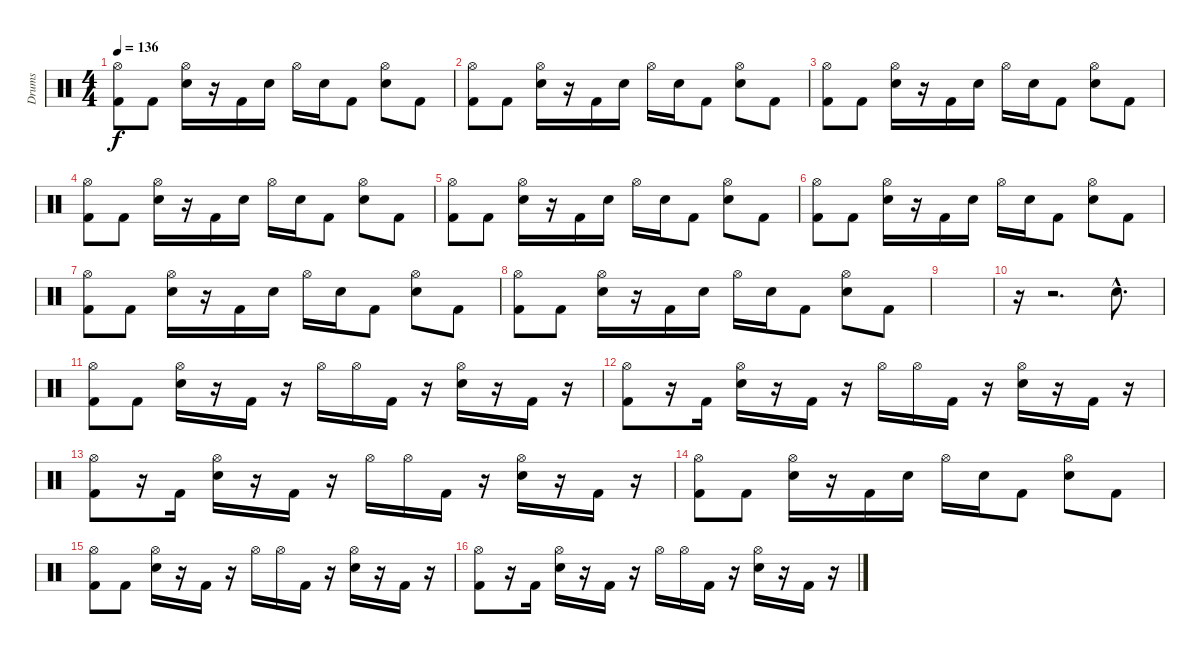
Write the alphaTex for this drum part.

\track ("Drums" "Drums") {instrument percussion}
\staff {score}
\articulation defaults
\ts (4 4)
\tempo 136
\clef neutral
\ks c
("Hi-Hat (open)" "Kick (hit) 2").8{dy f} "Kick (hit) 2".8 ("Hi-Hat (open)" "Electric Snare (hit)").16 r.16 "Kick (hit) 2".16 "Electric Snare (hit)".16 "Hi-Hat (open)".16 "Electric Snare (hit)".16 "Kick (hit) 2".8 ("Hi-Hat (open)" "Electric Snare (hit)").8 "Kick (hit) 2".8 |
("Hi-Hat (open)" "Kick (hit) 2").8 "Kick (hit) 2".8 ("Hi-Hat (open)" "Electric Snare (hit)").16 r.16 "Kick (hit) 2".16 "Electric Snare (hit)".16 "Hi-Hat (open)".16 "Electric Snare (hit)".16 "Kick (hit) 2".8 ("Hi-Hat (open)" "Electric Snare (hit)").8 "Kick (hit) 2".8 |
("Hi-Hat (open)" "Kick (hit) 2").8 "Kick (hit) 2".8 ("Hi-Hat (open)" "Electric Snare (hit)").16 r.16 "Kick (hit) 2".16 "Electric Snare (hit)".16 "Hi-Hat (open)".16 "Electric Snare (hit)".16 "Kick (hit) 2".8 ("Hi-Hat (open)" "Electric Snare (hit)").8 "Kick (hit) 2".8 |
("Hi-Hat (open)" "Kick (hit) 2").8 "Kick (hit) 2".8 ("Hi-Hat (open)" "Electric Snare (hit)").16 r.16 "Kick (hit) 2".16 "Electric Snare (hit)".16 "Hi-Hat (open)".16 "Electric Snare (hit)".16 "Kick (hit) 2".8 ("Hi-Hat (open)" "Electric Snare (hit)").8 "Kick (hit) 2".8 |
("Hi-Hat (open)" "Kick (hit) 2").8 "Kick (hit) 2".8 ("Hi-Hat (open)" "Electric Snare (hit)").16 r.16 "Kick (hit) 2".16 "Electric Snare (hit)".16 "Hi-Hat (open)".16 "Electric Snare (hit)".16 "Kick (hit) 2".8 ("Hi-Hat (open)" "Electric Snare (hit)").8 "Kick (hit) 2".8 |
("Hi-Hat (open)" "Kick (hit) 2").8 "Kick (hit) 2".8 ("Hi-Hat (open)" "Electric Snare (hit)").16 r.16 "Kick (hit) 2".16 "Electric Snare (hit)".16 "Hi-Hat (open)".16 "Electric Snare (hit)".16 "Kick (hit) 2".8 ("Hi-Hat (open)" "Electric Snare (hit)").8 "Kick (hit) 2".8 |
("Hi-Hat (open)" "Kick (hit) 2").8 "Kick (hit) 2".8 ("Hi-Hat (open)" "Electric Snare (hit)").16 r.16 "Kick (hit) 2".16 "Electric Snare (hit)".16 "Hi-Hat (open)".16 "Electric Snare (hit)".16 "Kick (hit) 2".8 ("Hi-Hat (open)" "Electric Snare (hit)").8 "Kick (hit) 2".8 |
("Hi-Hat (open)" "Kick (hit) 2").8 "Kick (hit) 2".8 ("Hi-Hat (open)" "Electric Snare (hit)").16 r.16 "Kick (hit) 2".16 "Electric Snare (hit)".16 "Hi-Hat (open)".16 "Electric Snare (hit)".16 "Kick (hit) 2".8 ("Hi-Hat (open)" "Electric Snare (hit)").8 "Kick (hit) 2".8 |
|
r.16 r.2{d} "Electric Snare (hit)"{hac}.8{d} |
("Hi-Hat (open)" "Kick (hit) 2").8 "Kick (hit) 2".8 ("Hi-Hat (open)" "Electric Snare (hit)").16 r.16 "Kick (hit) 2".16 r.16 "Hi-Hat (open)".16 "Hi-Hat (open)".16 "Kick (hit) 2".16 r.16 ("Hi-Hat (open)" "Electric Snare (hit)").16 r.16 "Kick (hit) 2".16 r.16 |
("Hi-Hat (open)" "Kick (hit) 2").8 r.16 "Kick (hit) 2".16 ("Hi-Hat (open)" "Electric Snare (hit)").16 r.16 "Kick (hit) 2".16 r.16 "Hi-Hat (open)".16 "Hi-Hat (open)".16 "Kick (hit) 2".16 r.16 ("Hi-Hat (open)" "Electric Snare (hit)").16 r.16 "Kick (hit) 2".16 r.16 |
("Hi-Hat (open)" "Kick (hit) 2").8 r.16 "Kick (hit) 2".16 ("Hi-Hat (open)" "Electric Snare (hit)").16 r.16 "Kick (hit) 2".16 r.16 "Hi-Hat (open)".16 "Hi-Hat (open)".16 "Kick (hit) 2".16 r.16 ("Hi-Hat (open)" "Electric Snare (hit)").16 r.16 "Kick (hit) 2".16 r.16 |
("Hi-Hat (open)" "Kick (hit) 2").8 "Kick (hit) 2".8 ("Hi-Hat (open)" "Electric Snare (hit)").16 r.16 "Kick (hit) 2".16 "Electric Snare (hit)".16 "Hi-Hat (open)".16 "Electric Snare (hit)".16 "Kick (hit) 2".8 ("Hi-Hat (open)" "Electric Snare (hit)").8 "Kick (hit) 2".8 |
("Hi-Hat (open)" "Kick (hit) 2").8 "Kick (hit) 2".8 ("Hi-Hat (open)" "Electric Snare (hit)").16 r.16 "Kick (hit) 2".16 r.16 "Hi-Hat (open)".16 "Hi-Hat (open)".16 "Kick (hit) 2".16 r.16 ("Hi-Hat (open)" "Electric Snare (hit)").16 r.16 "Kick (hit) 2".16 r.16 |
("Hi-Hat (open)" "Kick (hit) 2").8 r.16 "Kick (hit) 2".16 ("Hi-Hat (open)" "Electric Snare (hit)").16 r.16 "Kick (hit) 2".16 r.16 "Hi-Hat (open)".16 "Hi-Hat (open)".16 "Kick (hit) 2".16 r.16 ("Hi-Hat (open)" "Electric Snare (hit)").16 r.16 "Kick (hit) 2".16 r.16
